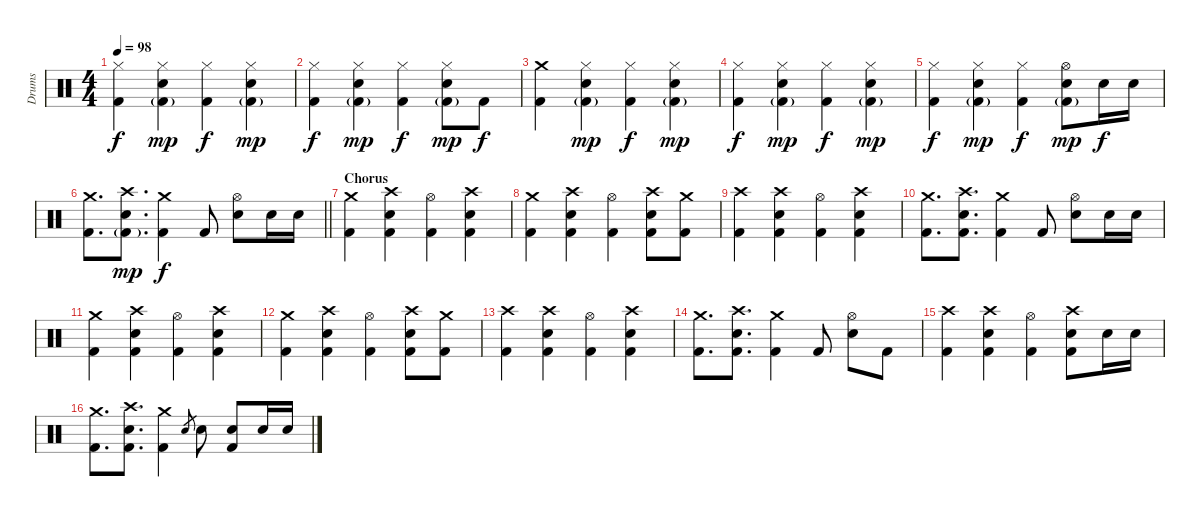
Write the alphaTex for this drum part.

\track ("Drums" "Drums") {instrument percussion}
\staff {score}
\articulation defaults
\ts (4 4)
\tempo 98
\clef neutral
\ks c
("Hi-Hat (closed)" "Kick (hit) 2").4{dy f} ("Hi-Hat (closed)" "Electric Snare (hit)" "Kick (hit) 2"{g}).4{dy mp} ("Hi-Hat (closed)" "Kick (hit) 2").4{dy f} ("Hi-Hat (closed)" "Electric Snare (hit)" "Kick (hit) 2"{g}).4{dy mp} |
("Hi-Hat (closed)" "Kick (hit) 2").4{dy f} ("Hi-Hat (closed)" "Electric Snare (hit)" "Kick (hit) 2"{g}).4{dy mp} ("Hi-Hat (closed)" "Kick (hit) 2").4{dy f} ("Hi-Hat (closed)" "Electric Snare (hit)" "Kick (hit) 2"{g}).8{dy mp} "Kick (hit) 2".8{dy f} |
("Crash medium (hit)" "Kick (hit) 2").4 ("Hi-Hat (closed)" "Electric Snare (hit)" "Kick (hit) 2"{g}).4{dy mp} ("Hi-Hat (closed)" "Kick (hit) 2").4{dy f} ("Hi-Hat (closed)" "Electric Snare (hit)" "Kick (hit) 2"{g}).4{dy mp} |
("Hi-Hat (closed)" "Kick (hit) 2").4{dy f} ("Hi-Hat (closed)" "Electric Snare (hit)" "Kick (hit) 2"{g}).4{dy mp} ("Hi-Hat (closed)" "Kick (hit) 2").4{dy f} ("Hi-Hat (closed)" "Electric Snare (hit)" "Kick (hit) 2"{g}).4{dy mp} |
("Hi-Hat (closed)" "Kick (hit) 2").4{dy f} ("Hi-Hat (closed)" "Electric Snare (hit)" "Kick (hit) 2"{g}).4{dy mp} ("Hi-Hat (closed)" "Kick (hit) 2").4{dy f} ("Hi-Hat (open)" "Electric Snare (hit)" "Kick (hit) 2"{g}).8{dy mp} "Electric Snare (hit)".16{dy f} "Electric Snare (hit)".16 |
\barLineRight lightlight
("Crash medium (hit)" "Kick (hit) 2").8{d} ("Crash high (hit)" "Electric Snare (hit)" "Kick (hit) 2"{g}).8{d dy mp} ("Crash medium (hit)" "Kick (hit) 2").4{dy f} "Kick (hit) 2".8 ("Hi-Hat (open)" "Electric Snare (hit)").8 "Electric Snare (hit)".16 "Electric Snare (hit)".16 |
\section ("" "Chorus")
("Crash medium (hit)" "Kick (hit) 2").4 ("Crash high (hit)" "Electric Snare (hit)" "Kick (hit) 2").4 ("Hi-Hat (open)" "Kick (hit) 2").4 ("Crash high (hit)" "Electric Snare (hit)" "Kick (hit) 2").4 |
("Crash medium (hit)" "Kick (hit) 2").4 ("Crash high (hit)" "Electric Snare (hit)" "Kick (hit) 2").4 ("Hi-Hat (open)" "Kick (hit) 2").4 ("Crash high (hit)" "Electric Snare (hit)" "Kick (hit) 2").8 ("Crash medium (hit)" "Kick (hit) 2").8 |
("Crash high (hit)" "Kick (hit) 2").4 ("Crash high (hit)" "Electric Snare (hit)" "Kick (hit) 2").4 ("Hi-Hat (open)" "Kick (hit) 2").4 ("Crash high (hit)" "Electric Snare (hit)" "Kick (hit) 2").4 |
("Crash medium (hit)" "Kick (hit) 2").8{d} ("Crash high (hit)" "Electric Snare (hit)" "Kick (hit) 2").8{d} ("Crash medium (hit)" "Kick (hit) 2").4 "Kick (hit) 2".8 ("Hi-Hat (open)" "Electric Snare (hit)").8 "Electric Snare (hit)".16 "Electric Snare (hit)".16 |
("Crash medium (hit)" "Kick (hit) 2").4 ("Crash high (hit)" "Electric Snare (hit)" "Kick (hit) 2").4 ("Hi-Hat (open)" "Kick (hit) 2").4 ("Crash high (hit)" "Electric Snare (hit)" "Kick (hit) 2").4 |
("Crash medium (hit)" "Kick (hit) 2").4 ("Crash high (hit)" "Electric Snare (hit)" "Kick (hit) 2").4 ("Hi-Hat (open)" "Kick (hit) 2").4 ("Crash high (hit)" "Electric Snare (hit)" "Kick (hit) 2").8 ("Crash medium (hit)" "Kick (hit) 2").8 |
("Crash high (hit)" "Kick (hit) 2").4 ("Crash high (hit)" "Electric Snare (hit)" "Kick (hit) 2").4 ("Hi-Hat (open)" "Kick (hit) 2").4 ("Crash high (hit)" "Electric Snare (hit)" "Kick (hit) 2").4 |
("Crash medium (hit)" "Kick (hit) 2").8{d} ("Crash high (hit)" "Electric Snare (hit)" "Kick (hit) 2").8{d} ("Crash medium (hit)" "Kick (hit) 2").4 "Kick (hit) 2".8 ("Hi-Hat (open)" "Electric Snare (hit)").8 "Kick (hit) 2".8 |
("Crash high (hit)" "Kick (hit) 2").4 ("Crash high (hit)" "Electric Snare (hit)" "Kick (hit) 2").4 ("Hi-Hat (open)" "Kick (hit) 2").4 ("Crash high (hit)" "Electric Snare (hit)" "Kick (hit) 2").8 "Electric Snare (hit)".16 "Electric Snare (hit)".16 |
("Crash medium (hit)" "Kick (hit) 2").8{d} ("Crash high (hit)" "Electric Snare (hit)" "Kick (hit) 2").8{d} ("Crash medium (hit)" "Kick (hit) 2").4 "Electric Snare (hit)".8{gr} "Electric Snare (hit)".8 ("Electric Snare (hit)" "Kick (hit) 2").8 "Electric Snare (hit)".16 "Electric Snare (hit)".16
